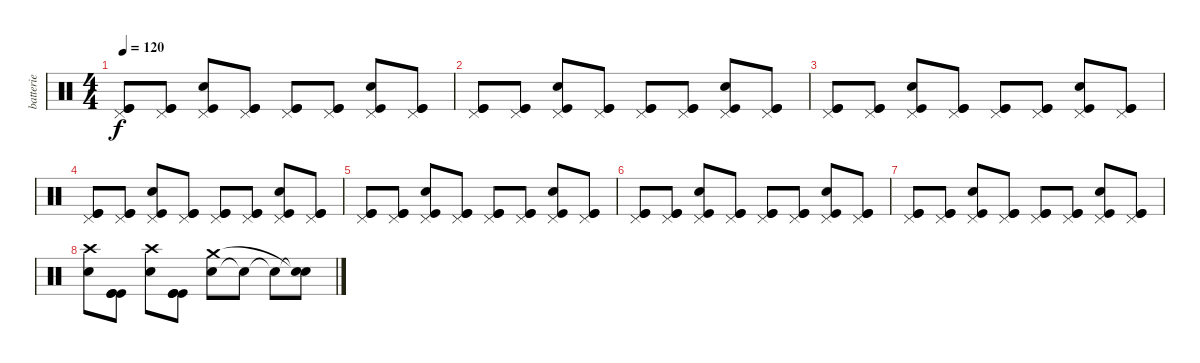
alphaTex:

\track ("batterie" "batterie") {instrument percussion}
\staff {score}
\articulation defaults
\ts (4 4)
\tempo 120
\clef neutral
\ks c
("Kick (hit)" "Kick (hit)" "Pedal Hi-Hat (hit)").8{dy f} ("Kick (hit)" "Kick (hit)" "Pedal Hi-Hat (hit)").8 ("Electric Snare (hit)" "Kick (hit)" "Pedal Hi-Hat (hit)").8 ("Kick (hit)" "Kick (hit)" "Pedal Hi-Hat (hit)").8 ("Kick (hit)" "Kick (hit)" "Pedal Hi-Hat (hit)").8 ("Kick (hit)" "Kick (hit)" "Pedal Hi-Hat (hit)").8 ("Electric Snare (hit)" "Kick (hit)" "Pedal Hi-Hat (hit)").8 ("Kick (hit)" "Kick (hit)" "Pedal Hi-Hat (hit)").8 |
("Kick (hit)" "Kick (hit)" "Pedal Hi-Hat (hit)").8 ("Kick (hit)" "Kick (hit)" "Pedal Hi-Hat (hit)").8 ("Electric Snare (hit)" "Kick (hit)" "Pedal Hi-Hat (hit)").8 ("Kick (hit)" "Kick (hit)" "Pedal Hi-Hat (hit)").8 ("Kick (hit)" "Kick (hit)" "Pedal Hi-Hat (hit)").8 ("Kick (hit)" "Kick (hit)" "Pedal Hi-Hat (hit)").8 ("Electric Snare (hit)" "Kick (hit)" "Pedal Hi-Hat (hit)").8 ("Kick (hit)" "Kick (hit)" "Pedal Hi-Hat (hit)").8 |
("Kick (hit)" "Kick (hit)" "Pedal Hi-Hat (hit)").8 ("Kick (hit)" "Kick (hit)" "Pedal Hi-Hat (hit)").8 ("Electric Snare (hit)" "Kick (hit)" "Pedal Hi-Hat (hit)").8 ("Kick (hit)" "Kick (hit)" "Pedal Hi-Hat (hit)").8 ("Kick (hit)" "Kick (hit)" "Pedal Hi-Hat (hit)").8 ("Kick (hit)" "Kick (hit)" "Pedal Hi-Hat (hit)").8 ("Electric Snare (hit)" "Kick (hit)" "Pedal Hi-Hat (hit)").8 ("Kick (hit)" "Kick (hit)" "Pedal Hi-Hat (hit)").8 |
("Kick (hit)" "Kick (hit)" "Pedal Hi-Hat (hit)").8 ("Kick (hit)" "Kick (hit)" "Pedal Hi-Hat (hit)").8 ("Electric Snare (hit)" "Kick (hit)" "Pedal Hi-Hat (hit)").8 ("Kick (hit)" "Kick (hit)" "Pedal Hi-Hat (hit)").8 ("Kick (hit)" "Kick (hit)" "Pedal Hi-Hat (hit)").8 ("Kick (hit)" "Kick (hit)" "Pedal Hi-Hat (hit)").8 ("Electric Snare (hit)" "Kick (hit)" "Pedal Hi-Hat (hit)").8 ("Kick (hit)" "Kick (hit)" "Pedal Hi-Hat (hit)").8 |
("Kick (hit)" "Kick (hit)" "Pedal Hi-Hat (hit)").8 ("Kick (hit)" "Kick (hit)" "Pedal Hi-Hat (hit)").8 ("Electric Snare (hit)" "Kick (hit)" "Pedal Hi-Hat (hit)").8 ("Kick (hit)" "Kick (hit)" "Pedal Hi-Hat (hit)").8 ("Kick (hit)" "Kick (hit)" "Pedal Hi-Hat (hit)").8 ("Kick (hit)" "Kick (hit)" "Pedal Hi-Hat (hit)").8 ("Electric Snare (hit)" "Kick (hit)" "Pedal Hi-Hat (hit)").8 ("Kick (hit)" "Kick (hit)" "Pedal Hi-Hat (hit)").8 |
("Kick (hit)" "Kick (hit)" "Pedal Hi-Hat (hit)").8 ("Kick (hit)" "Kick (hit)" "Pedal Hi-Hat (hit)").8 ("Electric Snare (hit)" "Kick (hit)" "Pedal Hi-Hat (hit)").8 ("Kick (hit)" "Kick (hit)" "Pedal Hi-Hat (hit)").8 ("Kick (hit)" "Kick (hit)" "Pedal Hi-Hat (hit)").8 ("Kick (hit)" "Kick (hit)" "Pedal Hi-Hat (hit)").8 ("Electric Snare (hit)" "Kick (hit)" "Pedal Hi-Hat (hit)").8 ("Kick (hit)" "Kick (hit)" "Pedal Hi-Hat (hit)").8 |
("Kick (hit)" "Kick (hit)" "Pedal Hi-Hat (hit)").8 ("Kick (hit)" "Kick (hit)" "Pedal Hi-Hat (hit)").8 ("Electric Snare (hit)" "Kick (hit)" "Pedal Hi-Hat (hit)").8 ("Kick (hit)" "Kick (hit)" "Pedal Hi-Hat (hit)").8 ("Kick (hit)" "Kick (hit)" "Pedal Hi-Hat (hit)").8 ("Kick (hit)" "Kick (hit)" "Pedal Hi-Hat (hit)").8 ("Electric Snare (hit)" "Kick (hit)" "Pedal Hi-Hat (hit)").8 ("Kick (hit)" "Kick (hit)" "Pedal Hi-Hat (hit)").8 |
("Electric Snare (hit)" "Crash high (hit)").8 ("Kick (hit)" "Kick (hit)" "Kick (hit)").8 ("Electric Snare (hit)" "Crash high (hit)").8 ("Kick (hit)" "Kick (hit)" "Kick (hit)").8 ("Electric Snare (hit)" "Crash medium (hit)").8 "Snare (hit)"{t}.8 "Snare (hit)"{t}.8 ("Snare (hit)"{t} "Snare (hit)"{t}).8
